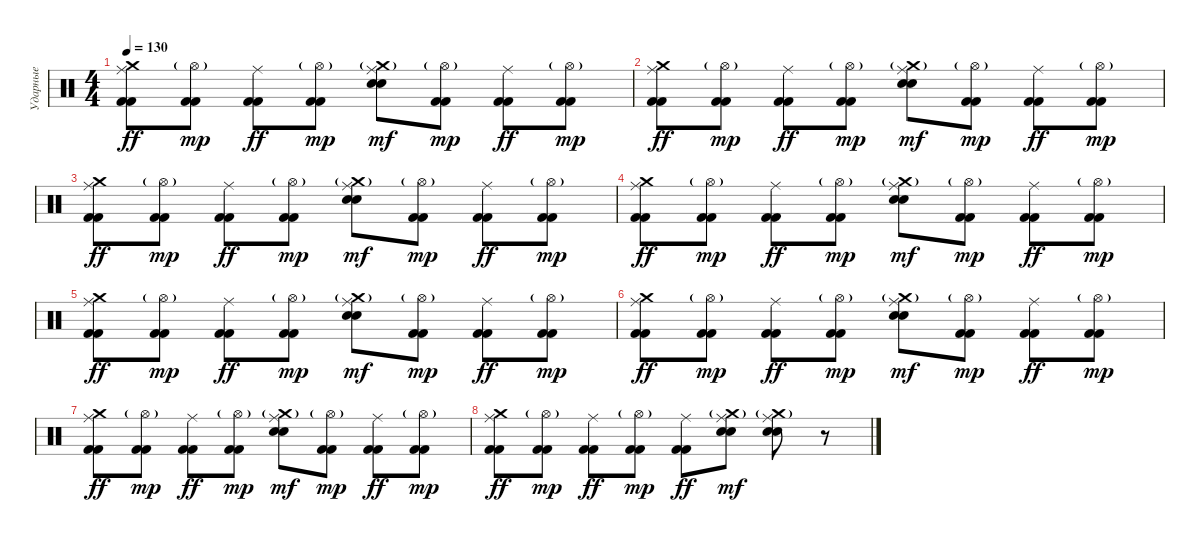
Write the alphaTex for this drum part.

\track ("Ударные" "Ударные") {instrument percussion}
\staff {score}
\articulation defaults
\ts (4 4)
\tempo 130
\clef neutral
\ks c
("Kick (hit) 2" "Kick (hit) 2" "Ride (middle)" "Crash medium (hit)").8{dy ff} ("Kick (hit) 2" "Kick (hit) 2" "Hi-Hat (open)"{g}).8{dy mp} ("Kick (hit) 2" "Kick (hit) 2" "Ride (middle)").8{dy ff} ("Kick (hit) 2" "Kick (hit) 2" "Hi-Hat (open)"{g}).8{dy mp} ("Electric Snare (hit)" "Snare (hit) 2" "Ride (middle)" "Crash medium (hit)"{g}).8{dy mf} ("Kick (hit) 2" "Kick (hit) 2" "Hi-Hat (open)"{g}).8{dy mp} ("Kick (hit) 2" "Kick (hit) 2" "Ride (middle)").8{dy ff} ("Kick (hit) 2" "Kick (hit) 2" "Hi-Hat (open)"{g}).8{dy mp} |
("Kick (hit) 2" "Kick (hit) 2" "Ride (middle)" "Crash medium (hit)").8{dy ff} ("Kick (hit) 2" "Kick (hit) 2" "Hi-Hat (open)"{g}).8{dy mp} ("Kick (hit) 2" "Kick (hit) 2" "Ride (middle)").8{dy ff} ("Kick (hit) 2" "Kick (hit) 2" "Hi-Hat (open)"{g}).8{dy mp} ("Electric Snare (hit)" "Snare (hit) 2" "Ride (middle)" "Crash medium (hit)"{g}).8{dy mf} ("Kick (hit) 2" "Kick (hit) 2" "Hi-Hat (open)"{g}).8{dy mp} ("Kick (hit) 2" "Kick (hit) 2" "Ride (middle)").8{dy ff} ("Kick (hit) 2" "Kick (hit) 2" "Hi-Hat (open)"{g}).8{dy mp} |
("Kick (hit) 2" "Kick (hit) 2" "Ride (middle)" "Crash medium (hit)").8{dy ff} ("Kick (hit) 2" "Kick (hit) 2" "Hi-Hat (open)"{g}).8{dy mp} ("Kick (hit) 2" "Kick (hit) 2" "Ride (middle)").8{dy ff} ("Kick (hit) 2" "Kick (hit) 2" "Hi-Hat (open)"{g}).8{dy mp} ("Electric Snare (hit)" "Snare (hit) 2" "Ride (middle)" "Crash medium (hit)"{g}).8{dy mf} ("Kick (hit) 2" "Kick (hit) 2" "Hi-Hat (open)"{g}).8{dy mp} ("Kick (hit) 2" "Kick (hit) 2" "Ride (middle)").8{dy ff} ("Kick (hit) 2" "Kick (hit) 2" "Hi-Hat (open)"{g}).8{dy mp} |
("Kick (hit) 2" "Kick (hit) 2" "Ride (middle)" "Crash medium (hit)").8{dy ff} ("Kick (hit) 2" "Kick (hit) 2" "Hi-Hat (open)"{g}).8{dy mp} ("Kick (hit) 2" "Kick (hit) 2" "Ride (middle)").8{dy ff} ("Kick (hit) 2" "Kick (hit) 2" "Hi-Hat (open)"{g}).8{dy mp} ("Electric Snare (hit)" "Snare (hit) 2" "Ride (middle)" "Crash medium (hit)"{g}).8{dy mf} ("Kick (hit) 2" "Kick (hit) 2" "Hi-Hat (open)"{g}).8{dy mp} ("Kick (hit) 2" "Kick (hit) 2" "Ride (middle)").8{dy ff} ("Kick (hit) 2" "Kick (hit) 2" "Hi-Hat (open)"{g}).8{dy mp} |
("Kick (hit) 2" "Kick (hit) 2" "Ride (middle)" "Crash medium (hit)").8{dy ff} ("Kick (hit) 2" "Kick (hit) 2" "Hi-Hat (open)"{g}).8{dy mp} ("Kick (hit) 2" "Kick (hit) 2" "Ride (middle)").8{dy ff} ("Kick (hit) 2" "Kick (hit) 2" "Hi-Hat (open)"{g}).8{dy mp} ("Electric Snare (hit)" "Snare (hit) 2" "Ride (middle)" "Crash medium (hit)"{g}).8{dy mf} ("Kick (hit) 2" "Kick (hit) 2" "Hi-Hat (open)"{g}).8{dy mp} ("Kick (hit) 2" "Kick (hit) 2" "Ride (middle)").8{dy ff} ("Kick (hit) 2" "Kick (hit) 2" "Hi-Hat (open)"{g}).8{dy mp} |
("Kick (hit) 2" "Kick (hit) 2" "Ride (middle)" "Crash medium (hit)").8{dy ff} ("Kick (hit) 2" "Kick (hit) 2" "Hi-Hat (open)"{g}).8{dy mp} ("Kick (hit) 2" "Kick (hit) 2" "Ride (middle)").8{dy ff} ("Kick (hit) 2" "Kick (hit) 2" "Hi-Hat (open)"{g}).8{dy mp} ("Electric Snare (hit)" "Snare (hit) 2" "Ride (middle)" "Crash medium (hit)"{g}).8{dy mf} ("Kick (hit) 2" "Kick (hit) 2" "Hi-Hat (open)"{g}).8{dy mp} ("Kick (hit) 2" "Kick (hit) 2" "Ride (middle)").8{dy ff} ("Kick (hit) 2" "Kick (hit) 2" "Hi-Hat (open)"{g}).8{dy mp} |
("Kick (hit) 2" "Kick (hit) 2" "Ride (middle)" "Crash medium (hit)").8{dy ff} ("Kick (hit) 2" "Kick (hit) 2" "Hi-Hat (open)"{g}).8{dy mp} ("Kick (hit) 2" "Kick (hit) 2" "Ride (middle)").8{dy ff} ("Kick (hit) 2" "Kick (hit) 2" "Hi-Hat (open)"{g}).8{dy mp} ("Electric Snare (hit)" "Snare (hit) 2" "Ride (middle)" "Crash medium (hit)"{g}).8{dy mf} ("Kick (hit) 2" "Kick (hit) 2" "Hi-Hat (open)"{g}).8{dy mp} ("Kick (hit) 2" "Kick (hit) 2" "Ride (middle)").8{dy ff} ("Kick (hit) 2" "Kick (hit) 2" "Hi-Hat (open)"{g}).8{dy mp} |
("Kick (hit) 2" "Kick (hit) 2" "Ride (middle)" "Crash medium (hit)").8{dy ff} ("Kick (hit) 2" "Kick (hit) 2" "Hi-Hat (open)"{g}).8{dy mp} ("Kick (hit) 2" "Kick (hit) 2" "Ride (middle)").8{dy ff} ("Kick (hit) 2" "Kick (hit) 2" "Hi-Hat (open)"{g}).8{dy mp} ("Kick (hit) 2" "Kick (hit) 2" "Ride (middle)").8{dy ff} ("Electric Snare (hit)" "Snare (hit) 2" "Ride (middle)" "Crash medium (hit)"{g}).8{dy mf} ("Electric Snare (hit)" "Snare (hit) 2" "Ride (middle)" "Crash medium (hit)"{g}).8 r.8
